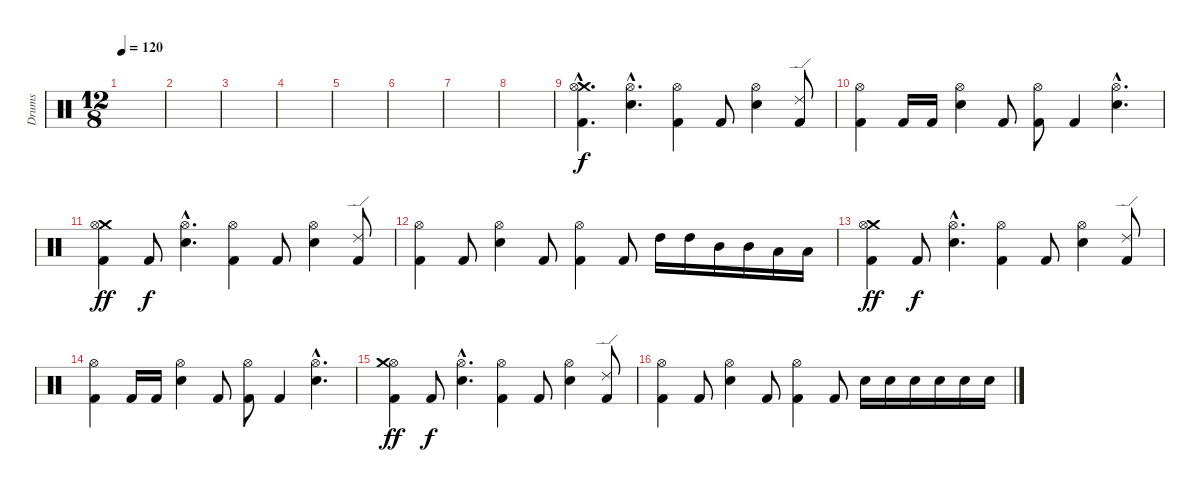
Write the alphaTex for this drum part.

\track ("Drums" "Drums") {instrument percussion}
\staff {score}
\articulation defaults
\ts (12 8)
\tempo 120
\tempo 180
\tempo 120
\clef neutral
\ks c
|
|
|
|
|
|
|
|
("Crash medium (hit)"{hac} "Hi-Hat (open)"{hac} "Kick (hit) 2"{hac}).4{d} ("Hi-Hat (open)"{hac} "Electric Snare (hit)"{hac}).4{d dy f} ("Hi-Hat (open)" "Kick (hit) 2").4 "Kick (hit) 2".8 ("Hi-Hat (open)" "Electric Snare (hit)").4 ("Ride (edge) 2" "Kick (hit) 2").8 |
("Hi-Hat (open)" "Kick (hit) 2").4 "Kick (hit) 2".16 "Kick (hit) 2".16 ("Hi-Hat (open)" "Electric Snare (hit)").4 "Kick (hit) 2".8 ("Hi-Hat (open)" "Kick (hit) 2").8 "Kick (hit) 2".4 ("Hi-Hat (open)"{hac} "Electric Snare (hit)"{hac}).4{d} |
("Crash medium (hit)" "Hi-Hat (open)" "Kick (hit) 2").4{dy ff} "Kick (hit) 2".8{dy f} ("Hi-Hat (open)"{hac} "Electric Snare (hit)"{hac}).4{d} ("Hi-Hat (open)" "Kick (hit) 2").4 "Kick (hit) 2".8 ("Hi-Hat (open)" "Electric Snare (hit)").4 ("Ride (edge) 2" "Kick (hit) 2").8 |
("Hi-Hat (open)" "Kick (hit) 2").4 "Kick (hit) 2".8 ("Hi-Hat (open)" "Electric Snare (hit)").4 "Kick (hit) 2".8 ("Hi-Hat (open)" "Kick (hit) 2").4 "Kick (hit) 2".8 "High Tom (hit)".16 "High Tom (hit)".16 "Mid Tom (hit)".16 "Mid Tom (hit)".16 "Low Tom (hit)".16 "Low Tom (hit)".16 |
("Crash medium (hit)" "Hi-Hat (open)" "Kick (hit) 2").4{dy ff} "Kick (hit) 2".8{dy f} ("Hi-Hat (open)"{hac} "Electric Snare (hit)"{hac}).4{d} ("Hi-Hat (open)" "Kick (hit) 2").4 "Kick (hit) 2".8 ("Hi-Hat (open)" "Electric Snare (hit)").4 ("Ride (edge) 2" "Kick (hit) 2").8 |
("Hi-Hat (open)" "Kick (hit) 2").4 "Kick (hit) 2".16 "Kick (hit) 2".16 ("Hi-Hat (open)" "Electric Snare (hit)").4 "Kick (hit) 2".8 ("Hi-Hat (open)" "Kick (hit) 2").8 "Kick (hit) 2".4 ("Hi-Hat (open)"{hac} "Electric Snare (hit)"{hac}).4{d} |
("Hi-Hat (open)" "Crash medium (hit)" "Kick (hit) 2").4{dy ff} "Kick (hit) 2".8{dy f} ("Hi-Hat (open)"{hac} "Electric Snare (hit)"{hac}).4{d} ("Hi-Hat (open)" "Kick (hit) 2").4 "Kick (hit) 2".8 ("Hi-Hat (open)" "Electric Snare (hit)").4 ("Ride (edge) 2" "Kick (hit) 2").8 |
("Hi-Hat (open)" "Kick (hit) 2").4 "Kick (hit) 2".8 ("Hi-Hat (open)" "Electric Snare (hit)").4 "Kick (hit) 2".8 ("Hi-Hat (open)" "Kick (hit) 2").4 "Kick (hit) 2".8 "Electric Snare (hit)".16 "Electric Snare (hit)".16 "Electric Snare (hit)".16 "Electric Snare (hit)".16 "Electric Snare (hit)".16 "Electric Snare (hit)".16
